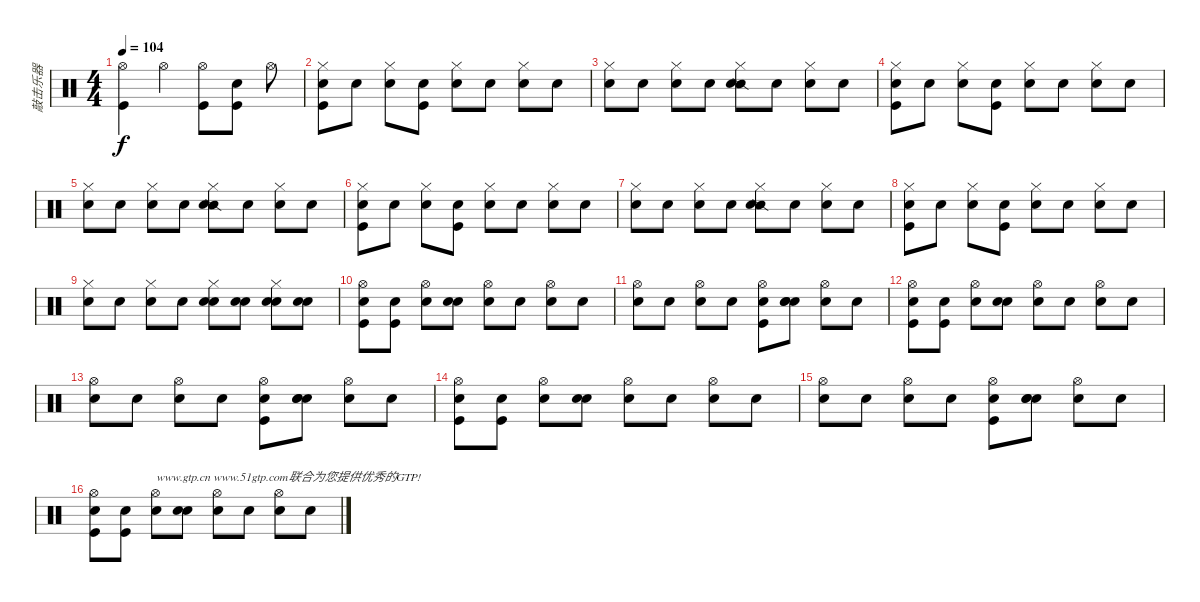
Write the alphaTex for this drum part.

\track ("敲击乐器" "敲击乐器") {instrument percussion}
\staff {score}
\articulation defaults
\ts (4 4)
\tempo 104
\clef neutral
\ks c
("Hi-Hat (open)" "Kick (hit)").4{dy f} "Hi-Hat (open)".4 ("Hi-Hat (open)" "Kick (hit)").8 ("Snare (hit) 2" "Kick (hit)").8 "Hi-Hat (open)".8 |
("Hi-Hat (closed)" "Snare (hit)" "Kick (hit)").8 "Snare (hit)".8 ("Hi-Hat (closed)" "Snare (hit)").8 ("Snare (hit)" "Kick (hit)").8 ("Hi-Hat (closed)" "Snare (hit)").8 "Snare (hit)".8 ("Hi-Hat (closed)" "Snare (hit)").8 "Snare (hit)".8 |
("Hi-Hat (closed)" "Snare (hit)").8 "Snare (hit)".8 ("Hi-Hat (closed)" "Snare (hit)").8 "Snare (hit)".8 ("Snare (side stick) 2" "Hi-Hat (closed)" "Snare (hit)").8 "Snare (hit)".8 ("Hi-Hat (closed)" "Snare (hit)").8 "Snare (hit)".8 |
("Hi-Hat (closed)" "Snare (hit)" "Kick (hit)").8 "Snare (hit)".8 ("Hi-Hat (closed)" "Snare (hit)").8 ("Snare (hit)" "Kick (hit)").8 ("Hi-Hat (closed)" "Snare (hit)").8 "Snare (hit)".8 ("Hi-Hat (closed)" "Snare (hit)").8 "Snare (hit)".8 |
("Hi-Hat (closed)" "Snare (hit)").8 "Snare (hit)".8 ("Hi-Hat (closed)" "Snare (hit)").8 "Snare (hit)".8 ("Snare (side stick) 2" "Hi-Hat (closed)" "Snare (hit)").8 "Snare (hit)".8 ("Hi-Hat (closed)" "Snare (hit)").8 "Snare (hit)".8 |
("Hi-Hat (closed)" "Snare (hit)" "Kick (hit)").8 "Snare (hit)".8 ("Hi-Hat (closed)" "Snare (hit)").8 ("Snare (hit)" "Kick (hit)").8 ("Hi-Hat (closed)" "Snare (hit)").8 "Snare (hit)".8 ("Hi-Hat (closed)" "Snare (hit)").8 "Snare (hit)".8 |
("Hi-Hat (closed)" "Snare (hit)").8 "Snare (hit)".8 ("Hi-Hat (closed)" "Snare (hit)").8 "Snare (hit)".8 ("Snare (side stick) 2" "Hi-Hat (closed)" "Snare (hit)").8 "Snare (hit)".8 ("Hi-Hat (closed)" "Snare (hit)").8 "Snare (hit)".8 |
("Hi-Hat (closed)" "Snare (hit)" "Kick (hit)").8 "Snare (hit)".8 ("Hi-Hat (closed)" "Snare (hit)").8 ("Snare (hit)" "Kick (hit)").8 ("Hi-Hat (closed)" "Snare (hit)").8 "Snare (hit)".8 ("Hi-Hat (closed)" "Snare (hit)").8 "Snare (hit)".8 |
("Hi-Hat (closed)" "Snare (hit)").8 "Snare (hit)".8 ("Hi-Hat (closed)" "Snare (hit)").8 "Snare (hit)".8 ("Electric Snare (hit)" "Hi-Hat (closed)" "Snare (hit)").8 ("Electric Snare (hit)" "Snare (hit)").8 ("Snare (hit) 2" "Hi-Hat (closed)" "Snare (hit)").8 ("Snare (hit) 2" "Snare (hit)").8 |
("Hi-Hat (open)" "Snare (hit)" "Kick (hit)").8{volume 10} ("Snare (hit)" "Kick (hit)").8 ("Hi-Hat (open)" "Snare (hit)").8 ("Snare (hit) 2" "Snare (hit)").8 ("Hi-Hat (open)" "Snare (hit)").8 "Snare (hit)".8 ("Hi-Hat (open)" "Snare (hit)").8 "Snare (hit)".8 |
("Hi-Hat (open)" "Snare (hit)").8 "Snare (hit)".8 ("Hi-Hat (open)" "Snare (hit)").8 "Snare (hit)".8 ("Hi-Hat (open)" "Snare (hit)" "Kick (hit)").8 ("Electric Snare (hit)" "Snare (hit) 2" "Snare (hit)").8 ("Hi-Hat (open)" "Snare (hit)").8 "Snare (hit)".8 |
("Hi-Hat (open)" "Snare (hit)" "Kick (hit)").8 ("Snare (hit)" "Kick (hit)").8 ("Hi-Hat (open)" "Snare (hit)").8 ("Snare (hit) 2" "Snare (hit)").8 ("Hi-Hat (open)" "Snare (hit)").8 "Snare (hit)".8 ("Hi-Hat (open)" "Snare (hit)").8 "Snare (hit)".8 |
("Hi-Hat (open)" "Snare (hit)").8 "Snare (hit)".8 ("Hi-Hat (open)" "Snare (hit)").8 "Snare (hit)".8 ("Hi-Hat (open)" "Snare (hit)" "Kick (hit)").8 ("Snare (hit) 2" "Electric Snare (hit)" "Snare (hit)").8 ("Hi-Hat (open)" "Snare (hit)").8 "Snare (hit)".8 |
("Hi-Hat (open)" "Snare (hit)" "Kick (hit)").8 ("Snare (hit)" "Kick (hit)").8 ("Hi-Hat (open)" "Snare (hit)").8 ("Snare (hit) 2" "Snare (hit)").8 ("Hi-Hat (open)" "Snare (hit)").8 "Snare (hit)".8 ("Hi-Hat (open)" "Snare (hit)").8 "Snare (hit)".8 |
("Hi-Hat (open)" "Snare (hit)").8 "Snare (hit)".8 ("Hi-Hat (open)" "Snare (hit)").8 "Snare (hit)".8 ("Hi-Hat (open)" "Snare (hit)" "Kick (hit)").8 ("Electric Snare (hit)" "Snare (hit) 2" "Snare (hit)").8 ("Hi-Hat (open)" "Snare (hit)").8 "Snare (hit)".8 |
("Hi-Hat (open)" "Snare (hit)" "Kick (hit)").8 ("Snare (hit)" "Kick (hit)").8 ("Hi-Hat (open)" "Snare (hit)").8{txt "www.gtp.cn www.51gtp.com联合为您提供优秀的GTP!"} ("Snare (hit) 2" "Snare (hit)").8 ("Hi-Hat (open)" "Snare (hit)").8 "Snare (hit)".8 ("Hi-Hat (open)" "Snare (hit)").8 "Snare (hit)".8
